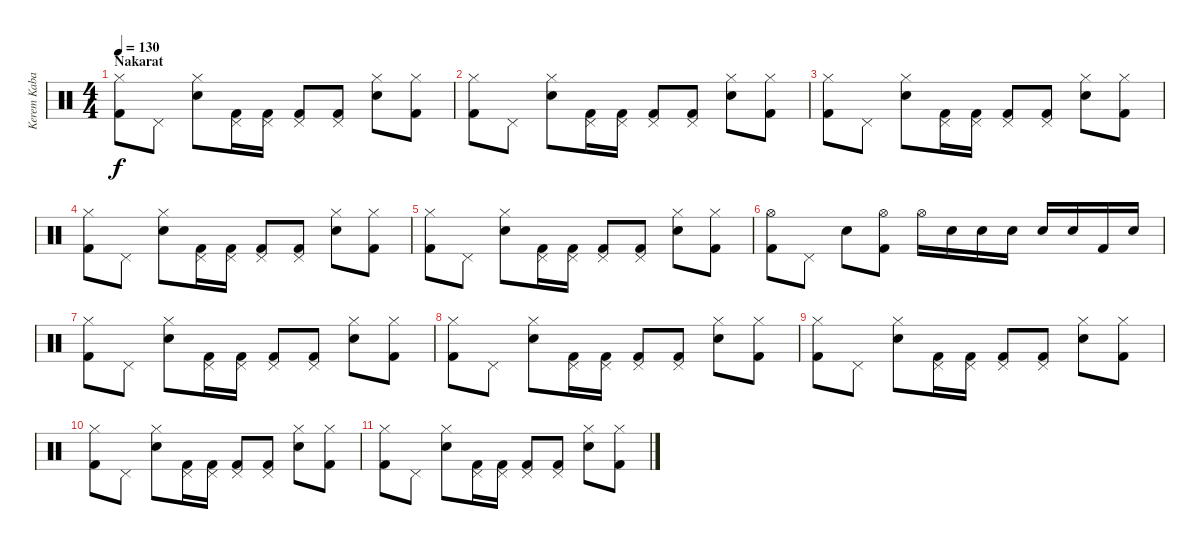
\track ("Kerem Kabadayi" "Kerem Kaba") {instrument percussion}
\staff {score}
\articulation defaults
\ts (4 4)
\section ("" "Nakarat")
\tempo 130
\clef neutral
\ks c
("Kick (hit) 2" "Hi-Hat (closed)").8{dy f} "Pedal Hi-Hat (hit)".8 ("Electric Snare (hit)" "Hi-Hat (closed)").8 ("Kick (hit) 2" "Pedal Hi-Hat (hit)").16 ("Kick (hit) 2" "Pedal Hi-Hat (hit)").16 ("Kick (hit) 2" "Pedal Hi-Hat (hit)").8 ("Kick (hit) 2" "Pedal Hi-Hat (hit)").8 ("Electric Snare (hit)" "Hi-Hat (closed)").8 ("Kick (hit) 2" "Hi-Hat (closed)").8 |
("Kick (hit) 2" "Hi-Hat (closed)").8 "Pedal Hi-Hat (hit)".8 ("Electric Snare (hit)" "Hi-Hat (closed)").8 ("Kick (hit) 2" "Pedal Hi-Hat (hit)").16 ("Kick (hit) 2" "Pedal Hi-Hat (hit)").16 ("Kick (hit) 2" "Pedal Hi-Hat (hit)").8 ("Kick (hit) 2" "Pedal Hi-Hat (hit)").8 ("Electric Snare (hit)" "Hi-Hat (closed)").8 ("Kick (hit) 2" "Hi-Hat (closed)").8 |
("Kick (hit) 2" "Hi-Hat (closed)").8 "Pedal Hi-Hat (hit)".8 ("Electric Snare (hit)" "Hi-Hat (closed)").8 ("Kick (hit) 2" "Pedal Hi-Hat (hit)").16 ("Kick (hit) 2" "Pedal Hi-Hat (hit)").16 ("Kick (hit) 2" "Pedal Hi-Hat (hit)").8 ("Kick (hit) 2" "Pedal Hi-Hat (hit)").8 ("Electric Snare (hit)" "Hi-Hat (closed)").8 ("Kick (hit) 2" "Hi-Hat (closed)").8 |
("Kick (hit) 2" "Hi-Hat (closed)").8 "Pedal Hi-Hat (hit)".8 ("Electric Snare (hit)" "Hi-Hat (closed)").8 ("Kick (hit) 2" "Pedal Hi-Hat (hit)").16 ("Kick (hit) 2" "Pedal Hi-Hat (hit)").16 ("Kick (hit) 2" "Pedal Hi-Hat (hit)").8 ("Kick (hit) 2" "Pedal Hi-Hat (hit)").8 ("Electric Snare (hit)" "Hi-Hat (closed)").8 ("Kick (hit) 2" "Hi-Hat (closed)").8 |
("Kick (hit) 2" "Hi-Hat (closed)").8 "Pedal Hi-Hat (hit)".8 ("Electric Snare (hit)" "Hi-Hat (closed)").8 ("Kick (hit) 2" "Pedal Hi-Hat (hit)").16 ("Kick (hit) 2" "Pedal Hi-Hat (hit)").16 ("Kick (hit) 2" "Pedal Hi-Hat (hit)").8 ("Kick (hit) 2" "Pedal Hi-Hat (hit)").8 ("Electric Snare (hit)" "Hi-Hat (closed)").8 ("Kick (hit) 2" "Hi-Hat (closed)").8 |
("Kick (hit) 2" "Hi-Hat (open)").8 "Pedal Hi-Hat (hit)".8 "Electric Snare (hit)".8 ("Kick (hit) 2" "Hi-Hat (open)").8 "Hi-Hat (open)".16 "Electric Snare (hit)".16 "Electric Snare (hit)".16 "Electric Snare (hit)".16 "Electric Snare (hit)".16 "Electric Snare (hit)".16 "Kick (hit) 2".16 "Electric Snare (hit)".16 |
("Kick (hit) 2" "Hi-Hat (closed)").8 "Pedal Hi-Hat (hit)".8 ("Electric Snare (hit)" "Hi-Hat (closed)").8 ("Kick (hit) 2" "Pedal Hi-Hat (hit)").16 ("Kick (hit) 2" "Pedal Hi-Hat (hit)").16 ("Kick (hit) 2" "Pedal Hi-Hat (hit)").8 ("Kick (hit) 2" "Pedal Hi-Hat (hit)").8 ("Electric Snare (hit)" "Hi-Hat (closed)").8 ("Kick (hit) 2" "Hi-Hat (closed)").8 |
("Kick (hit) 2" "Hi-Hat (closed)").8 "Pedal Hi-Hat (hit)".8 ("Electric Snare (hit)" "Hi-Hat (closed)").8 ("Kick (hit) 2" "Pedal Hi-Hat (hit)").16 ("Kick (hit) 2" "Pedal Hi-Hat (hit)").16 ("Kick (hit) 2" "Pedal Hi-Hat (hit)").8 ("Kick (hit) 2" "Pedal Hi-Hat (hit)").8 ("Electric Snare (hit)" "Hi-Hat (closed)").8 ("Kick (hit) 2" "Hi-Hat (closed)").8 |
("Kick (hit) 2" "Hi-Hat (closed)").8 "Pedal Hi-Hat (hit)".8 ("Electric Snare (hit)" "Hi-Hat (closed)").8 ("Kick (hit) 2" "Pedal Hi-Hat (hit)").16 ("Kick (hit) 2" "Pedal Hi-Hat (hit)").16 ("Kick (hit) 2" "Pedal Hi-Hat (hit)").8 ("Kick (hit) 2" "Pedal Hi-Hat (hit)").8 ("Electric Snare (hit)" "Hi-Hat (closed)").8 ("Kick (hit) 2" "Hi-Hat (closed)").8 |
("Kick (hit) 2" "Hi-Hat (closed)").8 "Pedal Hi-Hat (hit)".8 ("Electric Snare (hit)" "Hi-Hat (closed)").8 ("Kick (hit) 2" "Pedal Hi-Hat (hit)").16 ("Kick (hit) 2" "Pedal Hi-Hat (hit)").16 ("Kick (hit) 2" "Pedal Hi-Hat (hit)").8 ("Kick (hit) 2" "Pedal Hi-Hat (hit)").8 ("Electric Snare (hit)" "Hi-Hat (closed)").8 ("Kick (hit) 2" "Hi-Hat (closed)").8 |
("Kick (hit) 2" "Hi-Hat (closed)").8 "Pedal Hi-Hat (hit)".8 ("Electric Snare (hit)" "Hi-Hat (closed)").8 ("Kick (hit) 2" "Pedal Hi-Hat (hit)").16 ("Kick (hit) 2" "Pedal Hi-Hat (hit)").16 ("Kick (hit) 2" "Pedal Hi-Hat (hit)").8 ("Kick (hit) 2" "Pedal Hi-Hat (hit)").8 ("Electric Snare (hit)" "Hi-Hat (closed)").8 ("Kick (hit) 2" "Hi-Hat (closed)").8
